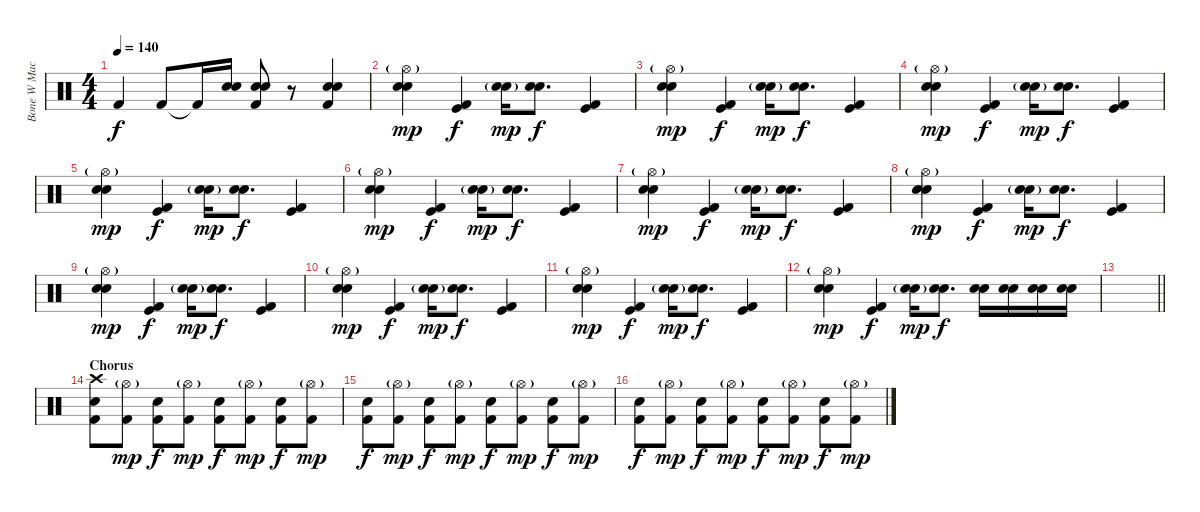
\track ("Bone W Machine" "Bone W Mac") {instrument percussion}
\staff {score}
\articulation defaults
\ts (4 4)
\tempo 140
\clef neutral
\ks c "Kick (hit) 2".4{dy f} "Kick (hit) 2".8 "Kick (hit) 2"{t}.16
("Snare (hit) 2" "Electric Snare (hit)").16 ("Snare (hit) 2" "Electric Snare (hit)" "Kick (hit) 2").8 r.8 ("Snare (hit) 2" "Electric Snare (hit)" "Kick (hit) 2").4 |
("Hi-Hat (open)"{g} "Snare (hit) 2" "Electric Snare (hit)").4{dy mp} ("Kick (hit)" "Kick (hit) 2").4{dy f} ("Snare (hit) 2"{g} "Electric Snare (hit)"{g}).16{dy mp} ("Snare (hit) 2" "Electric Snare (hit)").8{d dy f} ("Kick (hit)" "Kick (hit) 2").4 |
("Hi-Hat (open)"{g} "Snare (hit) 2" "Electric Snare (hit)").4{dy mp} ("Kick (hit)" "Kick (hit) 2").4{dy f} ("Snare (hit) 2"{g} "Electric Snare (hit)"{g}).16{dy mp} ("Snare (hit) 2" "Electric Snare (hit)").8{d dy f} ("Kick (hit)" "Kick (hit) 2").4 |
("Hi-Hat (open)"{g} "Snare (hit) 2" "Electric Snare (hit)").4{dy mp} ("Kick (hit)" "Kick (hit) 2").4{dy f} ("Snare (hit) 2"{g} "Electric Snare (hit)"{g}).16{dy mp} ("Snare (hit) 2" "Electric Snare (hit)").8{d dy f} ("Kick (hit)" "Kick (hit) 2").4 |
("Hi-Hat (open)"{g} "Snare (hit) 2" "Electric Snare (hit)").4{dy mp} ("Kick (hit)" "Kick (hit) 2").4{dy f} ("Snare (hit) 2"{g} "Electric Snare (hit)"{g}).16{dy mp} ("Snare (hit) 2" "Electric Snare (hit)").8{d dy f} ("Kick (hit)" "Kick (hit) 2").4 |
("Hi-Hat (open)"{g} "Snare (hit) 2" "Electric Snare (hit)").4{dy mp} ("Kick (hit)" "Kick (hit) 2").4{dy f} ("Snare (hit) 2"{g} "Electric Snare (hit)"{g}).16{dy mp} ("Snare (hit) 2" "Electric Snare (hit)").8{d dy f} ("Kick (hit)" "Kick (hit) 2").4 |
("Hi-Hat (open)"{g} "Snare (hit) 2" "Electric Snare (hit)").4{dy mp} ("Kick (hit)" "Kick (hit) 2").4{dy f} ("Snare (hit) 2"{g} "Electric Snare (hit)"{g}).16{dy mp} ("Snare (hit) 2" "Electric Snare (hit)").8{d dy f} ("Kick (hit)" "Kick (hit) 2").4 |
("Hi-Hat (open)"{g} "Snare (hit) 2" "Electric Snare (hit)").4{dy mp} ("Kick (hit)" "Kick (hit) 2").4{dy f} ("Snare (hit) 2"{g} "Electric Snare (hit)"{g}).16{dy mp} ("Snare (hit) 2" "Electric Snare (hit)").8{d dy f} ("Kick (hit)" "Kick (hit) 2").4 |
("Hi-Hat (open)"{g} "Snare (hit) 2" "Electric Snare (hit)").4{dy mp} ("Kick (hit)" "Kick (hit) 2").4{dy f} ("Snare (hit) 2"{g} "Electric Snare (hit)"{g}).16{dy mp} ("Snare (hit) 2" "Electric Snare (hit)").8{d dy f} ("Kick (hit)" "Kick (hit) 2").4 |
("Hi-Hat (open)"{g} "Snare (hit) 2" "Electric Snare (hit)").4{dy mp} ("Kick (hit)" "Kick (hit) 2").4{dy f} ("Snare (hit) 2"{g} "Electric Snare (hit)"{g}).16{dy mp} ("Snare (hit) 2" "Electric Snare (hit)").8{d dy f} ("Kick (hit)" "Kick (hit) 2").4 |
("Hi-Hat (open)"{g} "Snare (hit) 2" "Electric Snare (hit)").4{dy mp} ("Kick (hit)" "Kick (hit) 2").4{dy f} ("Snare (hit) 2"{g} "Electric Snare (hit)"{g}).16{dy mp} ("Snare (hit) 2" "Electric Snare (hit)").8{d dy f} ("Kick (hit)" "Kick (hit) 2").4 |
("Hi-Hat (open)"{g} "Snare (hit) 2" "Electric Snare (hit)").4{dy mp} ("Kick (hit)" "Kick (hit) 2").4{dy f} ("Snare (hit) 2"{g} "Electric Snare (hit)"{g}).16{dy mp} ("Snare (hit) 2" "Electric Snare (hit)").8{d dy f} ("Snare (hit) 2" "Electric Snare (hit)").16 ("Snare (hit) 2" "Electric Snare (hit)").16 ("Snare (hit) 2" "Electric Snare (hit)").16 ("Snare (hit) 2" "Electric Snare (hit)").16 |
\barLineRight lightlight
|
\section ("" "Chorus")
("Crash high (hit)" "Electric Snare (hit)" "Kick (hit) 2").8 ("Hi-Hat (open)"{g} "Kick (hit) 2").8{dy mp} ("Electric Snare (hit)" "Kick (hit) 2").8{dy f} ("Hi-Hat (open)"{g} "Kick (hit) 2").8{dy mp} ("Electric Snare (hit)" "Kick (hit) 2").8{dy f} ("Hi-Hat (open)"{g} "Kick (hit) 2").8{dy mp} ("Electric Snare (hit)" "Kick (hit) 2").8{dy f} ("Hi-Hat (open)"{g} "Kick (hit) 2").8{dy mp} |
("Electric Snare (hit)" "Kick (hit) 2").8{dy f} ("Hi-Hat (open)"{g} "Kick (hit) 2").8{dy mp} ("Electric Snare (hit)" "Kick (hit) 2").8{dy f} ("Hi-Hat (open)"{g} "Kick (hit) 2").8{dy mp} ("Electric Snare (hit)" "Kick (hit) 2").8{dy f} ("Hi-Hat (open)"{g} "Kick (hit) 2").8{dy mp} ("Electric Snare (hit)" "Kick (hit) 2").8{dy f} ("Hi-Hat (open)"{g} "Kick (hit) 2").8{dy mp} |
("Electric Snare (hit)" "Kick (hit) 2").8{dy f} ("Hi-Hat (open)"{g} "Kick (hit) 2").8{dy mp} ("Electric Snare (hit)" "Kick (hit) 2").8{dy f} ("Hi-Hat (open)"{g} "Kick (hit) 2").8{dy mp} ("Electric Snare (hit)" "Kick (hit) 2").8{dy f} ("Hi-Hat (open)"{g} "Kick (hit) 2").8{dy mp} ("Electric Snare (hit)" "Kick (hit) 2").8{dy f} ("Hi-Hat (open)"{g} "Kick (hit) 2").8{dy mp}
